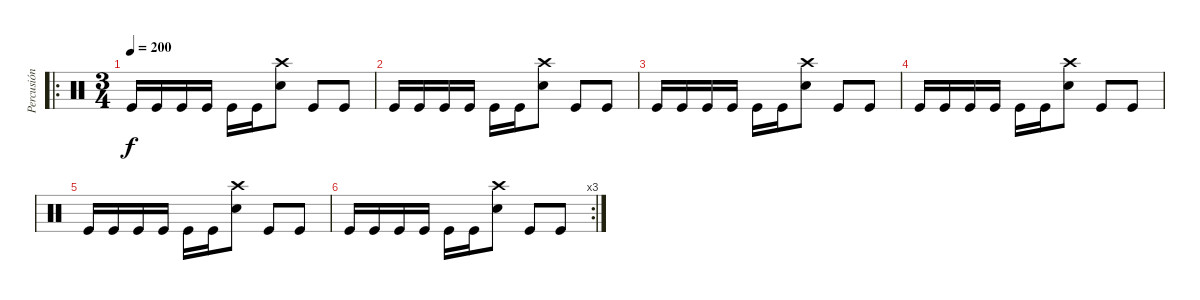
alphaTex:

\track ("Percusión" "Percusión") {instrument percussion}
\staff {score}
\articulation defaults
\ro
\ts (3 4)
\tempo 200
\clef neutral
\ks c "Kick (hit)".16{dy f} "Kick (hit)".16 "Kick (hit)".16 "Kick (hit)".16 "Kick (hit)".16 "Kick (hit)".16
("Crash high (hit)" "Snare (hit) 2").8 "Kick (hit)".8 "Kick (hit)".8 |
"Kick (hit)".16 "Kick (hit)".16 "Kick (hit)".16 "Kick (hit)".16 "Kick (hit)".16 "Kick (hit)".16 ("Crash high (hit)" "Snare (hit) 2").8 "Kick (hit)".8 "Kick (hit)".8 |
"Kick (hit)".16 "Kick (hit)".16 "Kick (hit)".16 "Kick (hit)".16 "Kick (hit)".16 "Kick (hit)".16 ("Crash high (hit)" "Snare (hit) 2").8 "Kick (hit)".8 "Kick (hit)".8 |
"Kick (hit)".16 "Kick (hit)".16 "Kick (hit)".16 "Kick (hit)".16 "Kick (hit)".16 "Kick (hit)".16 ("Crash high (hit)" "Snare (hit) 2").8 "Kick (hit)".8 "Kick (hit)".8 |
"Kick (hit)".16 "Kick (hit)".16 "Kick (hit)".16 "Kick (hit)".16 "Kick (hit)".16 "Kick (hit)".16 ("Crash high (hit)" "Snare (hit) 2").8 "Kick (hit)".8 "Kick (hit)".8 |
\rc 3 "Kick (hit)".16 "Kick (hit)".16 "Kick (hit)".16 "Kick (hit)".16 "Kick (hit)".16 "Kick (hit)".16
("Crash high (hit)" "Snare (hit) 2").8 "Kick (hit)".8 "Kick (hit)".8
